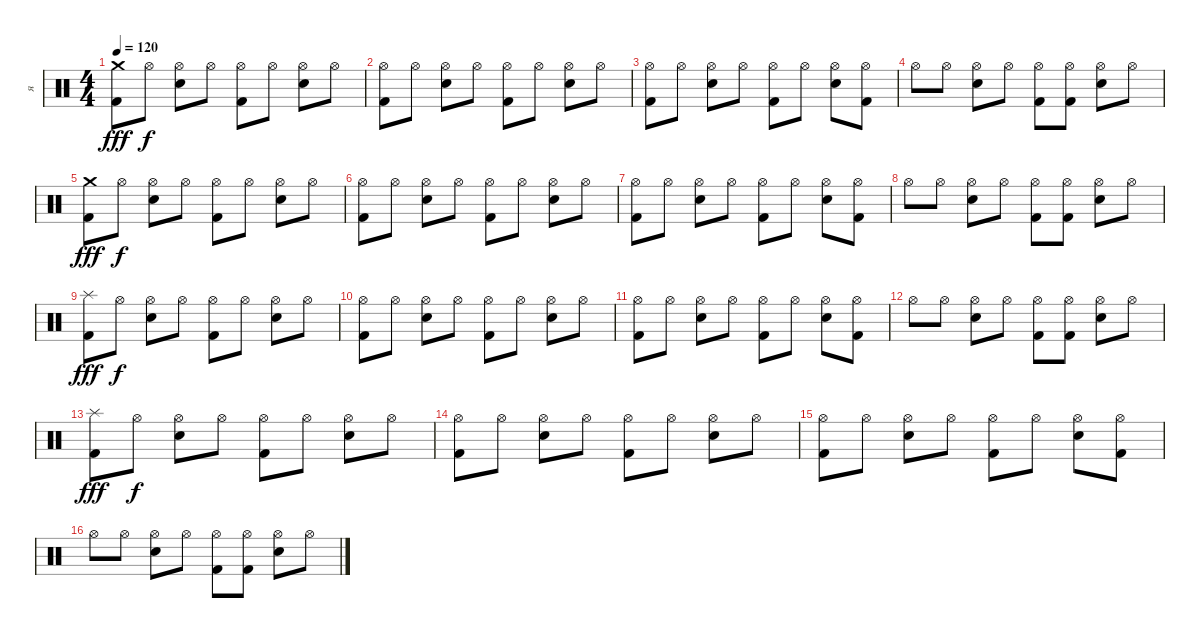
\track ("я" "я") {instrument percussion}
\staff {score}
\articulation defaults
\ts (4 4)
\tempo 120
\clef neutral
\ks c
("Kick (hit) 2" "Crash medium (hit)").8{dy fff} "Hi-Hat (open)".8{dy f} ("Snare (hit) 2" "Hi-Hat (open)").8 "Hi-Hat (open)".8 ("Kick (hit) 2" "Hi-Hat (open)").8 "Hi-Hat (open)".8 ("Snare (hit) 2" "Hi-Hat (open)").8 "Hi-Hat (open)".8 |
("Kick (hit) 2" "Hi-Hat (open)").8 "Hi-Hat (open)".8 ("Snare (hit) 2" "Hi-Hat (open)").8 "Hi-Hat (open)".8 ("Kick (hit) 2" "Hi-Hat (open)").8 "Hi-Hat (open)".8 ("Snare (hit) 2" "Hi-Hat (open)").8 "Hi-Hat (open)".8 |
("Kick (hit) 2" "Hi-Hat (open)").8 "Hi-Hat (open)".8 ("Snare (hit) 2" "Hi-Hat (open)").8 "Hi-Hat (open)".8 ("Kick (hit) 2" "Hi-Hat (open)").8 "Hi-Hat (open)".8 ("Snare (hit) 2" "Hi-Hat (open)").8 ("Kick (hit) 2" "Hi-Hat (open)").8 |
"Hi-Hat (open)".8 "Hi-Hat (open)".8 ("Snare (hit) 2" "Hi-Hat (open)").8 "Hi-Hat (open)".8 ("Kick (hit) 2" "Hi-Hat (open)").8 ("Kick (hit) 2" "Hi-Hat (open)").8 ("Snare (hit) 2" "Hi-Hat (open)").8 "Hi-Hat (open)".8 |
("Kick (hit) 2" "Crash medium (hit)").8{dy fff} "Hi-Hat (open)".8{dy f} ("Snare (hit) 2" "Hi-Hat (open)").8 "Hi-Hat (open)".8 ("Kick (hit) 2" "Hi-Hat (open)").8 "Hi-Hat (open)".8 ("Snare (hit) 2" "Hi-Hat (open)").8 "Hi-Hat (open)".8 |
("Kick (hit) 2" "Hi-Hat (open)").8 "Hi-Hat (open)".8 ("Snare (hit) 2" "Hi-Hat (open)").8 "Hi-Hat (open)".8 ("Kick (hit) 2" "Hi-Hat (open)").8 "Hi-Hat (open)".8 ("Snare (hit) 2" "Hi-Hat (open)").8 "Hi-Hat (open)".8 |
("Kick (hit) 2" "Hi-Hat (open)").8 "Hi-Hat (open)".8 ("Snare (hit) 2" "Hi-Hat (open)").8 "Hi-Hat (open)".8 ("Kick (hit) 2" "Hi-Hat (open)").8 "Hi-Hat (open)".8 ("Snare (hit) 2" "Hi-Hat (open)").8 ("Kick (hit) 2" "Hi-Hat (open)").8 |
"Hi-Hat (open)".8 "Hi-Hat (open)".8 ("Snare (hit) 2" "Hi-Hat (open)").8 "Hi-Hat (open)".8 ("Kick (hit) 2" "Hi-Hat (open)").8 ("Kick (hit) 2" "Hi-Hat (open)").8 ("Snare (hit) 2" "Hi-Hat (open)").8 "Hi-Hat (open)".8 |
("Kick (hit) 2" "Splash (hit)").8{dy fff} "Hi-Hat (open)".8{dy f} ("Snare (hit) 2" "Hi-Hat (open)").8 "Hi-Hat (open)".8 ("Kick (hit) 2" "Hi-Hat (open)").8 "Hi-Hat (open)".8 ("Snare (hit) 2" "Hi-Hat (open)").8 "Hi-Hat (open)".8 |
("Kick (hit) 2" "Hi-Hat (open)").8 "Hi-Hat (open)".8 ("Snare (hit) 2" "Hi-Hat (open)").8 "Hi-Hat (open)".8 ("Kick (hit) 2" "Hi-Hat (open)").8 "Hi-Hat (open)".8 ("Snare (hit) 2" "Hi-Hat (open)").8 "Hi-Hat (open)".8 |
("Kick (hit) 2" "Hi-Hat (open)").8 "Hi-Hat (open)".8 ("Snare (hit) 2" "Hi-Hat (open)").8 "Hi-Hat (open)".8 ("Kick (hit) 2" "Hi-Hat (open)").8 "Hi-Hat (open)".8 ("Snare (hit) 2" "Hi-Hat (open)").8 ("Kick (hit) 2" "Hi-Hat (open)").8 |
"Hi-Hat (open)".8 "Hi-Hat (open)".8 ("Snare (hit) 2" "Hi-Hat (open)").8 "Hi-Hat (open)".8 ("Kick (hit) 2" "Hi-Hat (open)").8 ("Kick (hit) 2" "Hi-Hat (open)").8 ("Snare (hit) 2" "Hi-Hat (open)").8 "Hi-Hat (open)".8 |
("Kick (hit) 2" "Splash (hit)").8{dy fff} "Hi-Hat (open)".8{dy f} ("Snare (hit) 2" "Hi-Hat (open)").8 "Hi-Hat (open)".8 ("Kick (hit) 2" "Hi-Hat (open)").8 "Hi-Hat (open)".8 ("Snare (hit) 2" "Hi-Hat (open)").8 "Hi-Hat (open)".8 |
("Kick (hit) 2" "Hi-Hat (open)").8 "Hi-Hat (open)".8 ("Snare (hit) 2" "Hi-Hat (open)").8 "Hi-Hat (open)".8 ("Kick (hit) 2" "Hi-Hat (open)").8 "Hi-Hat (open)".8 ("Snare (hit) 2" "Hi-Hat (open)").8 "Hi-Hat (open)".8 |
("Kick (hit) 2" "Hi-Hat (open)").8 "Hi-Hat (open)".8 ("Snare (hit) 2" "Hi-Hat (open)").8 "Hi-Hat (open)".8 ("Kick (hit) 2" "Hi-Hat (open)").8 "Hi-Hat (open)".8 ("Snare (hit) 2" "Hi-Hat (open)").8 ("Kick (hit) 2" "Hi-Hat (open)").8 |
"Hi-Hat (open)".8 "Hi-Hat (open)".8 ("Snare (hit) 2" "Hi-Hat (open)").8 "Hi-Hat (open)".8 ("Kick (hit) 2" "Hi-Hat (open)").8 ("Kick (hit) 2" "Hi-Hat (open)").8 ("Snare (hit) 2" "Hi-Hat (open)").8 "Hi-Hat (open)".8
